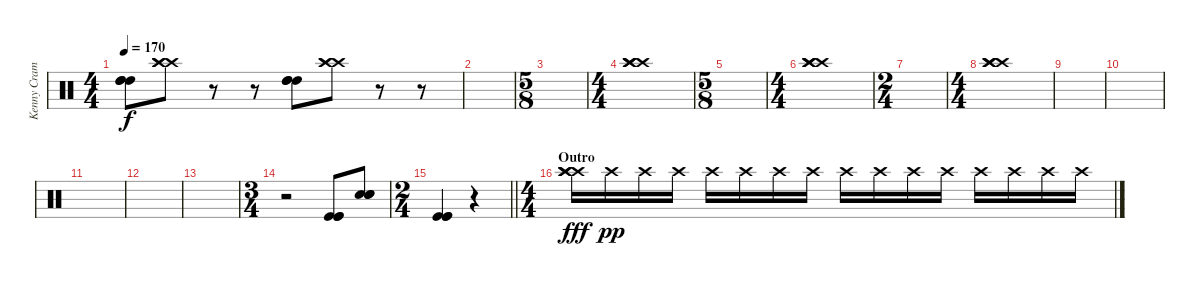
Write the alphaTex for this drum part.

\track ("Kenny Cramme" "Kenny Cram") {instrument percussion}
\staff {score}
\articulation defaults
\ts (4 4)
\tempo 170
\clef neutral
\ks c
("High Tom (hit)" "High Tom (hit)" "High Tom (hit)").8{dy f} ("Crash high (hit)" "Crash high (hit)" "Crash high (hit)").8 r.8 r.8 ("High Tom (hit)" "High Tom (hit)" "High Tom (hit)").8 ("Crash high (hit)" "Crash high (hit)" "Crash high (hit)").8 r.8 r.8 |
|
\ts (5 8)
|
\ts (4 4)
("Crash high (hit)" "Crash high (hit)" "Crash high (hit)" "Crash high (hit)").1 |
\ts (5 8)
|
\ts (4 4)
("Crash high (hit)" "Crash high (hit)" "Crash high (hit)" "Crash high (hit)").1 |
\ts (2 4)
|
\ts (4 4)
("Crash high (hit)" "Crash high (hit)" "Crash high (hit)" "Crash high (hit)").1 |
|
|
|
|
|
\ts (3 4)
r.2 ("Kick (hit)" "Kick (hit)" "Kick (hit)").8 ("Snare (hit) 2" "Snare (hit) 2" "Snare (hit) 2").8 |
\ts (2 4)
\barLineRight lightlight
("Kick (hit)" "Kick (hit)" "Kick (hit)").4 r.4 |
\ts (4 4)
\section ("" "Outro")
("Crash high (hit)" "Crash high (hit)" "Crash high (hit)" "Crash high (hit)").16{dy fff} "Crash high (hit)".16{dy pp} "Crash high (hit)".16 "Crash high (hit)".16 "Crash high (hit)".16 "Crash high (hit)".16 "Crash high (hit)".16 "Crash high (hit)".16 "Crash high (hit)".16 "Crash high (hit)".16 "Crash high (hit)".16 "Crash high (hit)".16 "Crash high (hit)".16 "Crash high (hit)".16 "Crash high (hit)".16 "Crash high (hit)".16
